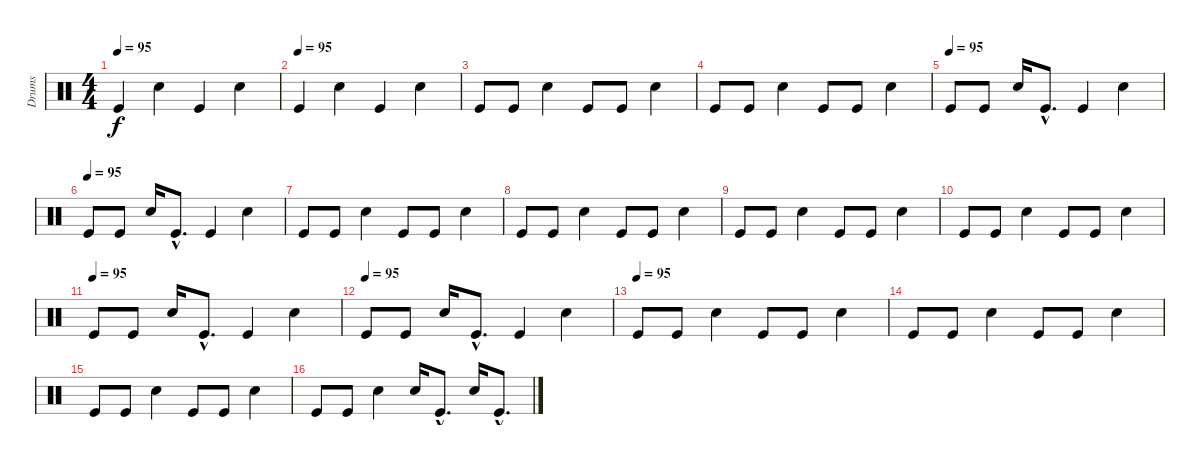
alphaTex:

\track ("Drums" "Drums") {instrument percussion}
\staff {score}
\articulation defaults
\ts (4 4)
\tempo 95
\clef neutral
\ks c "Kick (hit)".4{dy f} "Snare (hit) 2".4 "Kick (hit)".4 "Snare (hit) 2".4
|
\tempo (95)
"Kick (hit)".4 "Snare (hit) 2".4 "Kick (hit)".4 "Snare (hit) 2".4 |
"Kick (hit)".8 "Kick (hit)".8 "Snare (hit) 2".4 "Kick (hit)".8 "Kick (hit)".8 "Snare (hit) 2".4 |
"Kick (hit)".8 "Kick (hit)".8 "Snare (hit) 2".4 "Kick (hit)".8 "Kick (hit)".8 "Snare (hit) 2".4 |
\tempo (95)
"Kick (hit)".8 "Kick (hit)".8 "Snare (hit) 2".16 "Kick (hit)"{hac}.8{d} "Kick (hit)".4 "Snare (hit) 2".4 |
\tempo (95)
"Kick (hit)".8 "Kick (hit)".8 "Snare (hit) 2".16 "Kick (hit)"{hac}.8{d} "Kick (hit)".4 "Snare (hit) 2".4 |
"Kick (hit)".8 "Kick (hit)".8 "Snare (hit) 2".4 "Kick (hit)".8 "Kick (hit)".8 "Snare (hit) 2".4 |
"Kick (hit)".8 "Kick (hit)".8 "Snare (hit) 2".4 "Kick (hit)".8 "Kick (hit)".8 "Snare (hit) 2".4 |
"Kick (hit)".8 "Kick (hit)".8 "Snare (hit) 2".4 "Kick (hit)".8 "Kick (hit)".8 "Snare (hit) 2".4 |
"Kick (hit)".8 "Kick (hit)".8 "Snare (hit) 2".4 "Kick (hit)".8 "Kick (hit)".8 "Snare (hit) 2".4 |
\tempo (95)
"Kick (hit)".8 "Kick (hit)".8 "Snare (hit) 2".16 "Kick (hit)"{hac}.8{d} "Kick (hit)".4 "Snare (hit) 2".4 |
\tempo (95)
"Kick (hit)".8 "Kick (hit)".8 "Snare (hit) 2".16 "Kick (hit)"{hac}.8{d} "Kick (hit)".4 "Snare (hit) 2".4 |
\tempo (95)
"Kick (hit)".8 "Kick (hit)".8 "Snare (hit) 2".4 "Kick (hit)".8 "Kick (hit)".8 "Snare (hit) 2".4 |
"Kick (hit)".8 "Kick (hit)".8 "Snare (hit) 2".4 "Kick (hit)".8 "Kick (hit)".8 "Snare (hit) 2".4 |
"Kick (hit)".8 "Kick (hit)".8 "Snare (hit) 2".4 "Kick (hit)".8 "Kick (hit)".8 "Snare (hit) 2".4 |
"Kick (hit)".8 "Kick (hit)".8 "Snare (hit) 2".4 "Snare (hit) 2".16 "Kick (hit)"{hac}.8{d} "Snare (hit) 2".16 "Kick (hit)"{hac}.8{d}
